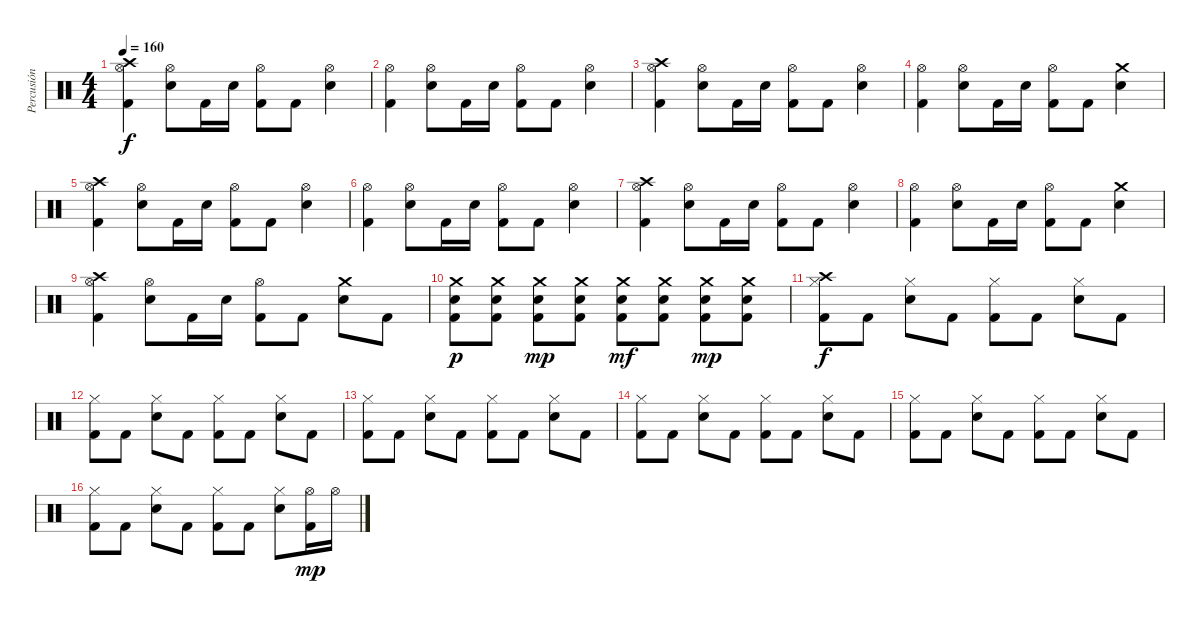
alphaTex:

\track ("Percusión" "Percusión") {instrument percussion}
\staff {score}
\articulation defaults
\ts (4 4)
\tempo 160
\clef neutral
\ks c
("Crash high (hit)" "Hi-Hat (open)" "Kick (hit) 2").4{dy f} ("Hi-Hat (open)" "Snare (hit) 2").8 "Kick (hit) 2".16 "Snare (hit) 2".16 ("Hi-Hat (open)" "Kick (hit) 2").8 "Kick (hit) 2".8 ("Hi-Hat (open)" "Snare (hit) 2").4 |
("Hi-Hat (open)" "Kick (hit) 2").4 ("Hi-Hat (open)" "Snare (hit) 2").8 "Kick (hit) 2".16 "Snare (hit) 2".16 ("Hi-Hat (open)" "Kick (hit) 2").8 "Kick (hit) 2".8 ("Hi-Hat (open)" "Snare (hit) 2").4 |
("Crash high (hit)" "Hi-Hat (open)" "Kick (hit) 2").4 ("Hi-Hat (open)" "Snare (hit) 2").8 "Kick (hit) 2".16 "Snare (hit) 2".16 ("Hi-Hat (open)" "Kick (hit) 2").8 "Kick (hit) 2".8 ("Hi-Hat (open)" "Snare (hit) 2").4 |
("Hi-Hat (open)" "Kick (hit) 2").4 ("Hi-Hat (open)" "Snare (hit) 2").8 "Kick (hit) 2".16 "Snare (hit) 2".16 ("Hi-Hat (open)" "Kick (hit) 2").8 "Kick (hit) 2".8 ("Crash medium (hit)" "Snare (hit) 2").4 |
("Crash high (hit)" "Hi-Hat (open)" "Kick (hit) 2").4 ("Hi-Hat (open)" "Snare (hit) 2").8 "Kick (hit) 2".16 "Snare (hit) 2".16 ("Hi-Hat (open)" "Kick (hit) 2").8 "Kick (hit) 2".8 ("Hi-Hat (open)" "Snare (hit) 2").4 |
("Hi-Hat (open)" "Kick (hit) 2").4 ("Hi-Hat (open)" "Snare (hit) 2").8 "Kick (hit) 2".16 "Snare (hit) 2".16 ("Hi-Hat (open)" "Kick (hit) 2").8 "Kick (hit) 2".8 ("Hi-Hat (open)" "Snare (hit) 2").4 |
("Crash high (hit)" "Hi-Hat (open)" "Kick (hit) 2").4 ("Hi-Hat (open)" "Snare (hit) 2").8 "Kick (hit) 2".16 "Snare (hit) 2".16 ("Hi-Hat (open)" "Kick (hit) 2").8 "Kick (hit) 2".8 ("Hi-Hat (open)" "Snare (hit) 2").4 |
("Hi-Hat (open)" "Kick (hit) 2").4 ("Hi-Hat (open)" "Snare (hit) 2").8 "Kick (hit) 2".16 "Snare (hit) 2".16 ("Hi-Hat (open)" "Kick (hit) 2").8 "Kick (hit) 2".8 ("Crash medium (hit)" "Snare (hit) 2").4 |
("Crash high (hit)" "Hi-Hat (open)" "Kick (hit) 2").4 ("Hi-Hat (open)" "Snare (hit) 2").8 "Kick (hit) 2".16 "Snare (hit) 2".16 ("Hi-Hat (open)" "Kick (hit) 2").8 "Kick (hit) 2".8 ("Crash medium (hit)" "Snare (hit) 2").8 "Kick (hit) 2".8 |
("Crash medium (hit)" "Snare (hit) 2" "Kick (hit) 2").8{dy p} ("Crash medium (hit)" "Snare (hit) 2" "Kick (hit) 2").8 ("Crash medium (hit)" "Snare (hit) 2" "Kick (hit) 2").8{dy mp} ("Crash medium (hit)" "Snare (hit) 2" "Kick (hit) 2").8 ("Crash medium (hit)" "Snare (hit) 2" "Kick (hit) 2").8{dy mf} ("Crash medium (hit)" "Snare (hit) 2" "Kick (hit) 2").8 ("Crash medium (hit)" "Snare (hit) 2" "Kick (hit) 2").8{dy mp} ("Crash medium (hit)" "Snare (hit) 2" "Kick (hit) 2").8 |
("Crash high (hit)" "Hi-Hat (closed)" "Kick (hit) 2").8{dy f} "Kick (hit) 2".8 ("Hi-Hat (closed)" "Snare (hit) 2").8 "Kick (hit) 2".8 ("Hi-Hat (closed)" "Kick (hit) 2").8 "Kick (hit) 2".8 ("Hi-Hat (closed)" "Snare (hit) 2").8 "Kick (hit) 2".8 |
("Hi-Hat (closed)" "Kick (hit) 2").8 "Kick (hit) 2".8 ("Hi-Hat (closed)" "Snare (hit) 2").8 "Kick (hit) 2".8 ("Hi-Hat (closed)" "Kick (hit) 2").8 "Kick (hit) 2".8 ("Hi-Hat (closed)" "Snare (hit) 2").8 "Kick (hit) 2".8 |
("Hi-Hat (closed)" "Kick (hit) 2").8 "Kick (hit) 2".8 ("Hi-Hat (closed)" "Snare (hit) 2").8 "Kick (hit) 2".8 ("Hi-Hat (closed)" "Kick (hit) 2").8 "Kick (hit) 2".8 ("Hi-Hat (closed)" "Snare (hit) 2").8 "Kick (hit) 2".8 |
("Hi-Hat (closed)" "Kick (hit) 2").8 "Kick (hit) 2".8 ("Hi-Hat (closed)" "Snare (hit) 2").8 "Kick (hit) 2".8 ("Hi-Hat (closed)" "Kick (hit) 2").8 "Kick (hit) 2".8 ("Hi-Hat (closed)" "Snare (hit) 2").8 "Kick (hit) 2".8 |
("Hi-Hat (closed)" "Kick (hit) 2").8 "Kick (hit) 2".8 ("Hi-Hat (closed)" "Snare (hit) 2").8 "Kick (hit) 2".8 ("Hi-Hat (closed)" "Kick (hit) 2").8 "Kick (hit) 2".8 ("Hi-Hat (closed)" "Snare (hit) 2").8 "Kick (hit) 2".8 |
("Hi-Hat (closed)" "Kick (hit) 2").8 "Kick (hit) 2".8 ("Hi-Hat (closed)" "Snare (hit) 2").8 "Kick (hit) 2".8 ("Hi-Hat (closed)" "Kick (hit) 2").8 "Kick (hit) 2".8 ("Hi-Hat (closed)" "Snare (hit) 2").8 ("Hi-Hat (open)" "Kick (hit) 2").16{dy mp} "Hi-Hat (open)".16
